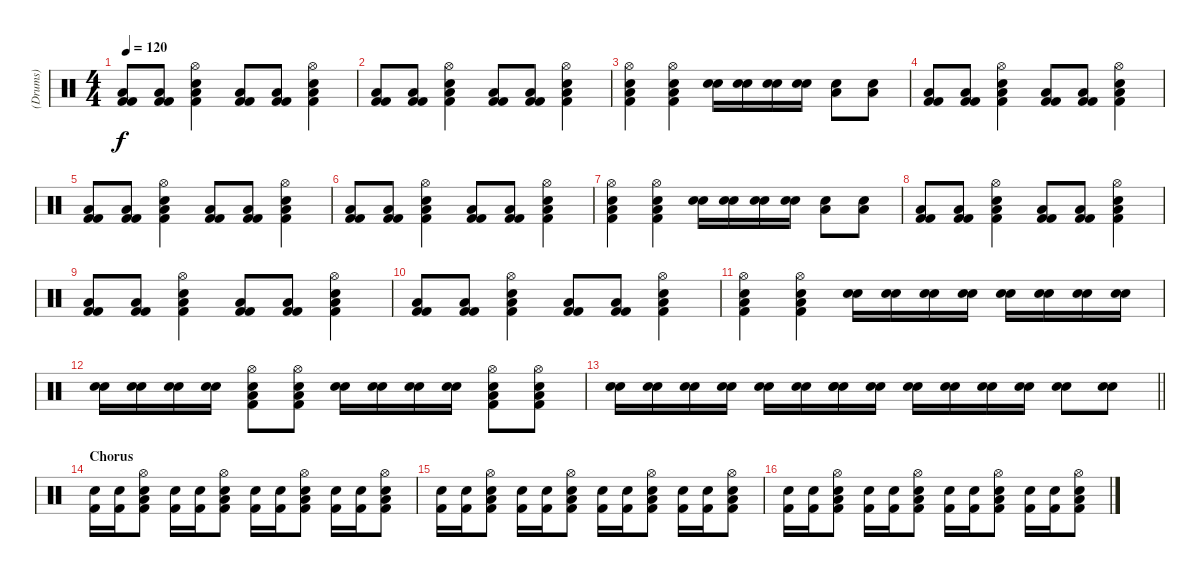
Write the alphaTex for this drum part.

\track ("(Drums)" "(Drums)") {instrument percussion}
\staff {score}
\articulation defaults
\ts (4 4)
\tempo 120
\clef neutral
\ks c
("Kick (hit) 2" "Kick (hit) 2" "Low Floor Tom (hit)").8{dy f} ("Kick (hit) 2" "Kick (hit) 2" "Low Floor Tom (hit)").8 ("Kick (hit) 2" "Electric Snare (hit)" "Low Floor Tom (hit)" "Hi-Hat (open)").4 ("Kick (hit) 2" "Kick (hit) 2" "Low Floor Tom (hit)").8 ("Kick (hit) 2" "Kick (hit) 2" "Low Floor Tom (hit)").8 ("Kick (hit) 2" "Electric Snare (hit)" "Low Floor Tom (hit)" "Hi-Hat (open)").4 |
("Kick (hit) 2" "Kick (hit) 2" "Low Floor Tom (hit)").8 ("Kick (hit) 2" "Kick (hit) 2" "Low Floor Tom (hit)").8 ("Kick (hit) 2" "Electric Snare (hit)" "Low Floor Tom (hit)" "Hi-Hat (open)").4 ("Kick (hit) 2" "Kick (hit) 2" "Low Floor Tom (hit)").8 ("Kick (hit) 2" "Kick (hit) 2" "Low Floor Tom (hit)").8 ("Kick (hit) 2" "Electric Snare (hit)" "Low Floor Tom (hit)" "Hi-Hat (open)").4 |
("Kick (hit) 2" "Electric Snare (hit)" "Low Floor Tom (hit)" "Hi-Hat (open)").4 ("Kick (hit) 2" "Electric Snare (hit)" "Low Floor Tom (hit)" "Hi-Hat (open)").4 ("Electric Snare (hit)" "Electric Snare (hit)").16 ("Electric Snare (hit)" "Electric Snare (hit)").16 ("Electric Snare (hit)" "Electric Snare (hit)").16 ("Electric Snare (hit)" "Electric Snare (hit)").16 ("Electric Snare (hit)" "Low Floor Tom (hit)").8 ("Electric Snare (hit)" "Low Floor Tom (hit)").8 |
("Kick (hit) 2" "Kick (hit) 2" "Low Floor Tom (hit)").8 ("Kick (hit) 2" "Kick (hit) 2" "Low Floor Tom (hit)").8 ("Kick (hit) 2" "Electric Snare (hit)" "Low Floor Tom (hit)" "Hi-Hat (open)").4 ("Kick (hit) 2" "Kick (hit) 2" "Low Floor Tom (hit)").8 ("Kick (hit) 2" "Kick (hit) 2" "Low Floor Tom (hit)").8 ("Kick (hit) 2" "Electric Snare (hit)" "Low Floor Tom (hit)" "Hi-Hat (open)").4 |
("Kick (hit) 2" "Kick (hit) 2" "Low Floor Tom (hit)").8 ("Kick (hit) 2" "Kick (hit) 2" "Low Floor Tom (hit)").8 ("Kick (hit) 2" "Electric Snare (hit)" "Low Floor Tom (hit)" "Hi-Hat (open)").4 ("Kick (hit) 2" "Kick (hit) 2" "Low Floor Tom (hit)").8 ("Kick (hit) 2" "Kick (hit) 2" "Low Floor Tom (hit)").8 ("Kick (hit) 2" "Electric Snare (hit)" "Low Floor Tom (hit)" "Hi-Hat (open)").4 |
("Kick (hit) 2" "Kick (hit) 2" "Low Floor Tom (hit)").8 ("Kick (hit) 2" "Kick (hit) 2" "Low Floor Tom (hit)").8 ("Kick (hit) 2" "Electric Snare (hit)" "Low Floor Tom (hit)" "Hi-Hat (open)").4 ("Kick (hit) 2" "Kick (hit) 2" "Low Floor Tom (hit)").8 ("Kick (hit) 2" "Kick (hit) 2" "Low Floor Tom (hit)").8 ("Kick (hit) 2" "Electric Snare (hit)" "Low Floor Tom (hit)" "Hi-Hat (open)").4 |
("Kick (hit) 2" "Electric Snare (hit)" "Low Floor Tom (hit)" "Hi-Hat (open)").4 ("Kick (hit) 2" "Electric Snare (hit)" "Low Floor Tom (hit)" "Hi-Hat (open)").4 ("Electric Snare (hit)" "Electric Snare (hit)").16 ("Electric Snare (hit)" "Electric Snare (hit)").16 ("Electric Snare (hit)" "Electric Snare (hit)").16 ("Electric Snare (hit)" "Electric Snare (hit)").16 ("Electric Snare (hit)" "Low Floor Tom (hit)").8 ("Electric Snare (hit)" "Low Floor Tom (hit)").8 |
("Kick (hit) 2" "Kick (hit) 2" "Low Floor Tom (hit)").8 ("Kick (hit) 2" "Kick (hit) 2" "Low Floor Tom (hit)").8 ("Kick (hit) 2" "Electric Snare (hit)" "Low Floor Tom (hit)" "Hi-Hat (open)").4 ("Kick (hit) 2" "Kick (hit) 2" "Low Floor Tom (hit)").8 ("Kick (hit) 2" "Kick (hit) 2" "Low Floor Tom (hit)").8 ("Kick (hit) 2" "Electric Snare (hit)" "Low Floor Tom (hit)" "Hi-Hat (open)").4 |
("Kick (hit) 2" "Kick (hit) 2" "Low Floor Tom (hit)").8 ("Kick (hit) 2" "Kick (hit) 2" "Low Floor Tom (hit)").8 ("Kick (hit) 2" "Electric Snare (hit)" "Low Floor Tom (hit)" "Hi-Hat (open)").4 ("Kick (hit) 2" "Kick (hit) 2" "Low Floor Tom (hit)").8 ("Kick (hit) 2" "Kick (hit) 2" "Low Floor Tom (hit)").8 ("Kick (hit) 2" "Electric Snare (hit)" "Low Floor Tom (hit)" "Hi-Hat (open)").4 |
("Kick (hit) 2" "Kick (hit) 2" "Low Floor Tom (hit)").8 ("Kick (hit) 2" "Kick (hit) 2" "Low Floor Tom (hit)").8 ("Kick (hit) 2" "Electric Snare (hit)" "Low Floor Tom (hit)" "Hi-Hat (open)").4 ("Kick (hit) 2" "Kick (hit) 2" "Low Floor Tom (hit)").8 ("Kick (hit) 2" "Kick (hit) 2" "Low Floor Tom (hit)").8 ("Kick (hit) 2" "Electric Snare (hit)" "Low Floor Tom (hit)" "Hi-Hat (open)").4 |
("Kick (hit) 2" "Electric Snare (hit)" "Low Floor Tom (hit)" "Hi-Hat (open)").4 ("Kick (hit) 2" "Electric Snare (hit)" "Low Floor Tom (hit)" "Hi-Hat (open)").4 ("Electric Snare (hit)" "Electric Snare (hit)").16 ("Electric Snare (hit)" "Electric Snare (hit)").16 ("Electric Snare (hit)" "Electric Snare (hit)").16 ("Electric Snare (hit)" "Electric Snare (hit)").16 ("Electric Snare (hit)" "Electric Snare (hit)").16 ("Electric Snare (hit)" "Electric Snare (hit)").16 ("Electric Snare (hit)" "Electric Snare (hit)").16 ("Electric Snare (hit)" "Electric Snare (hit)").16 |
("Electric Snare (hit)" "Electric Snare (hit)").16 ("Electric Snare (hit)" "Electric Snare (hit)").16 ("Electric Snare (hit)" "Electric Snare (hit)").16 ("Electric Snare (hit)" "Electric Snare (hit)").16 ("Kick (hit) 2" "Electric Snare (hit)" "Low Floor Tom (hit)" "Hi-Hat (open)").8 ("Kick (hit) 2" "Electric Snare (hit)" "Low Floor Tom (hit)" "Hi-Hat (open)").8 ("Electric Snare (hit)" "Electric Snare (hit)").16 ("Electric Snare (hit)" "Electric Snare (hit)").16 ("Electric Snare (hit)" "Electric Snare (hit)").16 ("Electric Snare (hit)" "Electric Snare (hit)").16 ("Kick (hit) 2" "Electric Snare (hit)" "Low Floor Tom (hit)" "Hi-Hat (open)").8 ("Kick (hit) 2" "Electric Snare (hit)" "Low Floor Tom (hit)" "Hi-Hat (open)").8 |
\barLineRight lightlight
("Electric Snare (hit)" "Electric Snare (hit)").16 ("Electric Snare (hit)" "Electric Snare (hit)").16 ("Electric Snare (hit)" "Electric Snare (hit)").16 ("Electric Snare (hit)" "Electric Snare (hit)").16 ("Electric Snare (hit)" "Electric Snare (hit)").16 ("Electric Snare (hit)" "Electric Snare (hit)").16 ("Electric Snare (hit)" "Electric Snare (hit)" "Electric Snare (hit)").16 ("Electric Snare (hit)" "Electric Snare (hit)").16 ("Electric Snare (hit)" "Electric Snare (hit)").16 ("Electric Snare (hit)" "Electric Snare (hit)").16 ("Electric Snare (hit)" "Electric Snare (hit)").16 ("Electric Snare (hit)" "Electric Snare (hit)").16 ("Electric Snare (hit)" "Electric Snare (hit)").8 ("Electric Snare (hit)" "Electric Snare (hit)").8 |
\section ("" "Chorus")
("Kick (hit) 2" "Electric Snare (hit)").16 ("Kick (hit) 2" "Electric Snare (hit)").16 ("Kick (hit) 2" "Electric Snare (hit)" "Low Floor Tom (hit)" "Hi-Hat (open)").8 ("Kick (hit) 2" "Electric Snare (hit)").16 ("Kick (hit) 2" "Electric Snare (hit)").16 ("Kick (hit) 2" "Electric Snare (hit)" "Low Floor Tom (hit)" "Hi-Hat (open)").8 ("Kick (hit) 2" "Electric Snare (hit)").16 ("Kick (hit) 2" "Electric Snare (hit)").16 ("Kick (hit) 2" "Electric Snare (hit)" "Low Floor Tom (hit)" "Hi-Hat (open)").8 ("Kick (hit) 2" "Electric Snare (hit)").16 ("Kick (hit) 2" "Electric Snare (hit)").16 ("Kick (hit) 2" "Electric Snare (hit)" "Low Floor Tom (hit)" "Hi-Hat (open)").8 |
("Kick (hit) 2" "Electric Snare (hit)").16 ("Kick (hit) 2" "Electric Snare (hit)").16 ("Kick (hit) 2" "Electric Snare (hit)" "Low Floor Tom (hit)" "Hi-Hat (open)").8 ("Kick (hit) 2" "Electric Snare (hit)").16 ("Kick (hit) 2" "Electric Snare (hit)").16 ("Kick (hit) 2" "Electric Snare (hit)" "Low Floor Tom (hit)" "Hi-Hat (open)").8 ("Kick (hit) 2" "Electric Snare (hit)").16 ("Kick (hit) 2" "Electric Snare (hit)").16 ("Kick (hit) 2" "Electric Snare (hit)" "Low Floor Tom (hit)" "Hi-Hat (open)").8 ("Kick (hit) 2" "Electric Snare (hit)").16 ("Kick (hit) 2" "Electric Snare (hit)").16 ("Kick (hit) 2" "Electric Snare (hit)" "Low Floor Tom (hit)" "Hi-Hat (open)").8 |
("Kick (hit) 2" "Electric Snare (hit)").16 ("Kick (hit) 2" "Electric Snare (hit)").16 ("Kick (hit) 2" "Electric Snare (hit)" "Low Floor Tom (hit)" "Hi-Hat (open)").8 ("Kick (hit) 2" "Electric Snare (hit)").16 ("Kick (hit) 2" "Electric Snare (hit)").16 ("Kick (hit) 2" "Electric Snare (hit)" "Low Floor Tom (hit)" "Hi-Hat (open)").8 ("Kick (hit) 2" "Electric Snare (hit)").16 ("Kick (hit) 2" "Electric Snare (hit)").16 ("Kick (hit) 2" "Electric Snare (hit)" "Low Floor Tom (hit)" "Hi-Hat (open)").8 ("Kick (hit) 2" "Electric Snare (hit)").16 ("Kick (hit) 2" "Electric Snare (hit)").16 ("Kick (hit) 2" "Electric Snare (hit)" "Low Floor Tom (hit)" "Hi-Hat (open)").8
